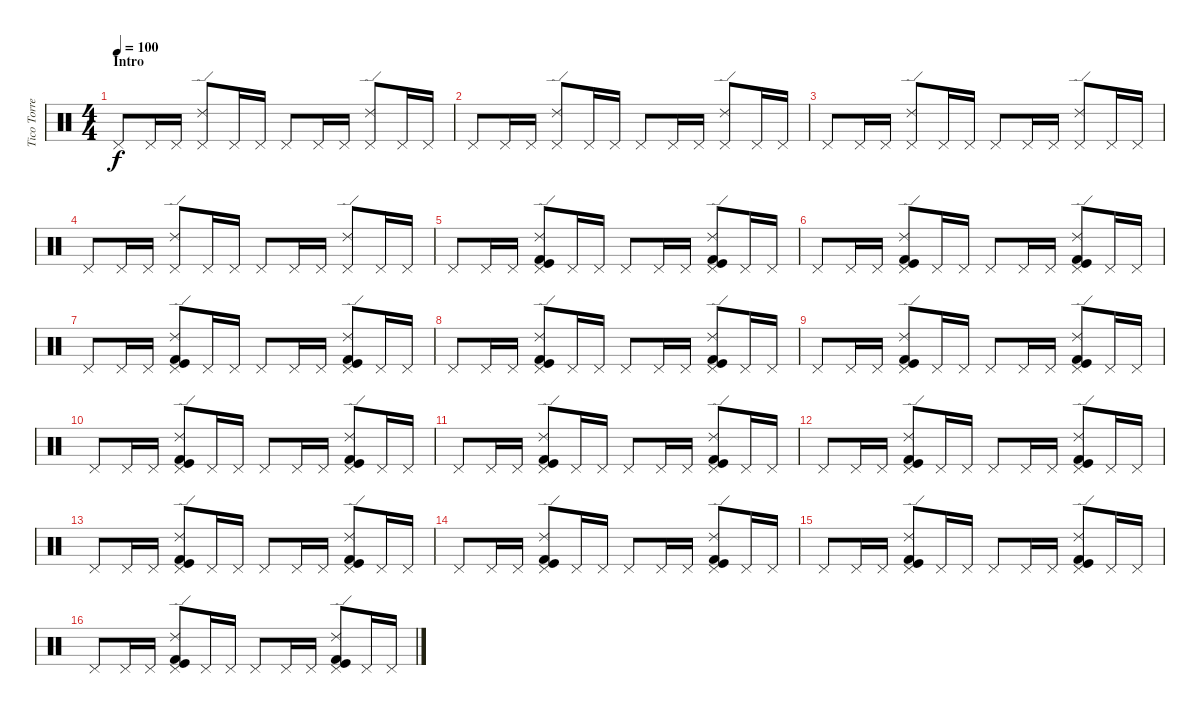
\track ("Tico Torres" "Tico Torre") {instrument percussion}
\staff {score}
\articulation defaults
\ts (4 4)
\section ("" "Intro")
\tempo 100
\clef neutral
\ks c "Pedal Hi-Hat (hit)".8{dy f volume 9} "Pedal Hi-Hat (hit)".16 "Pedal Hi-Hat (hit)".16
("Ride (edge) 2" "Pedal Hi-Hat (hit)").8 "Pedal Hi-Hat (hit)".16 "Pedal Hi-Hat (hit)".16 "Pedal Hi-Hat (hit)".8 "Pedal Hi-Hat (hit)".16 "Pedal Hi-Hat (hit)".16 ("Ride (edge) 2" "Pedal Hi-Hat (hit)").8 "Pedal Hi-Hat (hit)".16 "Pedal Hi-Hat (hit)".16 |
"Pedal Hi-Hat (hit)".8{volume 9} "Pedal Hi-Hat (hit)".16 "Pedal Hi-Hat (hit)".16 ("Ride (edge) 2" "Pedal Hi-Hat (hit)").8 "Pedal Hi-Hat (hit)".16 "Pedal Hi-Hat (hit)".16 "Pedal Hi-Hat (hit)".8 "Pedal Hi-Hat (hit)".16 "Pedal Hi-Hat (hit)".16 ("Ride (edge) 2" "Pedal Hi-Hat (hit)").8 "Pedal Hi-Hat (hit)".16 "Pedal Hi-Hat (hit)".16 |
"Pedal Hi-Hat (hit)".8{volume 9} "Pedal Hi-Hat (hit)".16 "Pedal Hi-Hat (hit)".16 ("Ride (edge) 2" "Pedal Hi-Hat (hit)").8 "Pedal Hi-Hat (hit)".16 "Pedal Hi-Hat (hit)".16 "Pedal Hi-Hat (hit)".8 "Pedal Hi-Hat (hit)".16 "Pedal Hi-Hat (hit)".16 ("Ride (edge) 2" "Pedal Hi-Hat (hit)").8 "Pedal Hi-Hat (hit)".16 "Pedal Hi-Hat (hit)".16 |
"Pedal Hi-Hat (hit)".8{volume 9} "Pedal Hi-Hat (hit)".16 "Pedal Hi-Hat (hit)".16 ("Ride (edge) 2" "Pedal Hi-Hat (hit)").8 "Pedal Hi-Hat (hit)".16 "Pedal Hi-Hat (hit)".16 "Pedal Hi-Hat (hit)".8 "Pedal Hi-Hat (hit)".16 "Pedal Hi-Hat (hit)".16 ("Ride (edge) 2" "Pedal Hi-Hat (hit)").8 "Pedal Hi-Hat (hit)".16 "Pedal Hi-Hat (hit)".16 |
"Pedal Hi-Hat (hit)".8{volume 9} "Pedal Hi-Hat (hit)".16 "Pedal Hi-Hat (hit)".16 ("Ride (edge) 2" "Kick (hit)" "Pedal Hi-Hat (hit)" "Kick (hit) 2").8 "Pedal Hi-Hat (hit)".16 "Pedal Hi-Hat (hit)".16 "Pedal Hi-Hat (hit)".8 "Pedal Hi-Hat (hit)".16 "Pedal Hi-Hat (hit)".16 ("Ride (edge) 2" "Kick (hit)" "Pedal Hi-Hat (hit)" "Kick (hit) 2").8 "Pedal Hi-Hat (hit)".16 "Pedal Hi-Hat (hit)".16 |
"Pedal Hi-Hat (hit)".8{volume 9} "Pedal Hi-Hat (hit)".16 "Pedal Hi-Hat (hit)".16 ("Ride (edge) 2" "Kick (hit)" "Pedal Hi-Hat (hit)" "Kick (hit) 2").8 "Pedal Hi-Hat (hit)".16 "Pedal Hi-Hat (hit)".16 "Pedal Hi-Hat (hit)".8 "Pedal Hi-Hat (hit)".16 "Pedal Hi-Hat (hit)".16 ("Ride (edge) 2" "Kick (hit)" "Pedal Hi-Hat (hit)" "Kick (hit) 2").8 "Pedal Hi-Hat (hit)".16 "Pedal Hi-Hat (hit)".16 |
"Pedal Hi-Hat (hit)".8{volume 9} "Pedal Hi-Hat (hit)".16 "Pedal Hi-Hat (hit)".16 ("Ride (edge) 2" "Kick (hit)" "Pedal Hi-Hat (hit)" "Kick (hit) 2").8 "Pedal Hi-Hat (hit)".16 "Pedal Hi-Hat (hit)".16 "Pedal Hi-Hat (hit)".8 "Pedal Hi-Hat (hit)".16 "Pedal Hi-Hat (hit)".16 ("Ride (edge) 2" "Kick (hit)" "Pedal Hi-Hat (hit)" "Kick (hit) 2").8 "Pedal Hi-Hat (hit)".16 "Pedal Hi-Hat (hit)".16 |
"Pedal Hi-Hat (hit)".8{volume 9} "Pedal Hi-Hat (hit)".16 "Pedal Hi-Hat (hit)".16 ("Ride (edge) 2" "Kick (hit)" "Pedal Hi-Hat (hit)" "Kick (hit) 2").8 "Pedal Hi-Hat (hit)".16 "Pedal Hi-Hat (hit)".16 "Pedal Hi-Hat (hit)".8 "Pedal Hi-Hat (hit)".16 "Pedal Hi-Hat (hit)".16 ("Ride (edge) 2" "Kick (hit)" "Pedal Hi-Hat (hit)" "Kick (hit) 2").8 "Pedal Hi-Hat (hit)".16 "Pedal Hi-Hat (hit)".16 |
"Pedal Hi-Hat (hit)".8{volume 13} "Pedal Hi-Hat (hit)".16 "Pedal Hi-Hat (hit)".16 ("Ride (edge) 2" "Kick (hit)" "Pedal Hi-Hat (hit)" "Kick (hit) 2").8 "Pedal Hi-Hat (hit)".16 "Pedal Hi-Hat (hit)".16 "Pedal Hi-Hat (hit)".8 "Pedal Hi-Hat (hit)".16 "Pedal Hi-Hat (hit)".16 ("Ride (edge) 2" "Kick (hit)" "Pedal Hi-Hat (hit)" "Kick (hit) 2").8 "Pedal Hi-Hat (hit)".16 "Pedal Hi-Hat (hit)".16 |
"Pedal Hi-Hat (hit)".8 "Pedal Hi-Hat (hit)".16 "Pedal Hi-Hat (hit)".16 ("Ride (edge) 2" "Kick (hit)" "Pedal Hi-Hat (hit)" "Kick (hit) 2").8 "Pedal Hi-Hat (hit)".16 "Pedal Hi-Hat (hit)".16 "Pedal Hi-Hat (hit)".8 "Pedal Hi-Hat (hit)".16 "Pedal Hi-Hat (hit)".16 ("Ride (edge) 2" "Kick (hit)" "Pedal Hi-Hat (hit)" "Kick (hit) 2").8 "Pedal Hi-Hat (hit)".16 "Pedal Hi-Hat (hit)".16 |
"Pedal Hi-Hat (hit)".8 "Pedal Hi-Hat (hit)".16 "Pedal Hi-Hat (hit)".16 ("Ride (edge) 2" "Kick (hit)" "Pedal Hi-Hat (hit)" "Kick (hit) 2").8 "Pedal Hi-Hat (hit)".16 "Pedal Hi-Hat (hit)".16 "Pedal Hi-Hat (hit)".8 "Pedal Hi-Hat (hit)".16 "Pedal Hi-Hat (hit)".16 ("Ride (edge) 2" "Kick (hit)" "Pedal Hi-Hat (hit)" "Kick (hit) 2").8 "Pedal Hi-Hat (hit)".16 "Pedal Hi-Hat (hit)".16 |
"Pedal Hi-Hat (hit)".8 "Pedal Hi-Hat (hit)".16 "Pedal Hi-Hat (hit)".16 ("Ride (edge) 2" "Kick (hit)" "Pedal Hi-Hat (hit)" "Kick (hit) 2").8 "Pedal Hi-Hat (hit)".16 "Pedal Hi-Hat (hit)".16 "Pedal Hi-Hat (hit)".8 "Pedal Hi-Hat (hit)".16 "Pedal Hi-Hat (hit)".16 ("Ride (edge) 2" "Kick (hit)" "Pedal Hi-Hat (hit)" "Kick (hit) 2").8 "Pedal Hi-Hat (hit)".16 "Pedal Hi-Hat (hit)".16 |
"Pedal Hi-Hat (hit)".8 "Pedal Hi-Hat (hit)".16 "Pedal Hi-Hat (hit)".16 ("Ride (edge) 2" "Kick (hit)" "Pedal Hi-Hat (hit)" "Kick (hit) 2").8 "Pedal Hi-Hat (hit)".16 "Pedal Hi-Hat (hit)".16 "Pedal Hi-Hat (hit)".8 "Pedal Hi-Hat (hit)".16 "Pedal Hi-Hat (hit)".16 ("Ride (edge) 2" "Kick (hit)" "Pedal Hi-Hat (hit)" "Kick (hit) 2").8 "Pedal Hi-Hat (hit)".16 "Pedal Hi-Hat (hit)".16 |
"Pedal Hi-Hat (hit)".8 "Pedal Hi-Hat (hit)".16 "Pedal Hi-Hat (hit)".16 ("Ride (edge) 2" "Kick (hit)" "Pedal Hi-Hat (hit)" "Kick (hit) 2").8 "Pedal Hi-Hat (hit)".16 "Pedal Hi-Hat (hit)".16 "Pedal Hi-Hat (hit)".8 "Pedal Hi-Hat (hit)".16 "Pedal Hi-Hat (hit)".16 ("Ride (edge) 2" "Kick (hit)" "Pedal Hi-Hat (hit)" "Kick (hit) 2").8 "Pedal Hi-Hat (hit)".16 "Pedal Hi-Hat (hit)".16 |
"Pedal Hi-Hat (hit)".8 "Pedal Hi-Hat (hit)".16 "Pedal Hi-Hat (hit)".16 ("Ride (edge) 2" "Kick (hit)" "Pedal Hi-Hat (hit)" "Kick (hit) 2").8 "Pedal Hi-Hat (hit)".16 "Pedal Hi-Hat (hit)".16 "Pedal Hi-Hat (hit)".8 "Pedal Hi-Hat (hit)".16 "Pedal Hi-Hat (hit)".16 ("Ride (edge) 2" "Kick (hit)" "Pedal Hi-Hat (hit)" "Kick (hit) 2").8 "Pedal Hi-Hat (hit)".16 "Pedal Hi-Hat (hit)".16 |
"Pedal Hi-Hat (hit)".8 "Pedal Hi-Hat (hit)".16 "Pedal Hi-Hat (hit)".16 ("Ride (edge) 2" "Kick (hit)" "Pedal Hi-Hat (hit)" "Kick (hit) 2").8 "Pedal Hi-Hat (hit)".16 "Pedal Hi-Hat (hit)".16 "Pedal Hi-Hat (hit)".8 "Pedal Hi-Hat (hit)".16 "Pedal Hi-Hat (hit)".16 ("Ride (edge) 2" "Kick (hit)" "Pedal Hi-Hat (hit)" "Kick (hit) 2").8 "Pedal Hi-Hat (hit)".16 "Pedal Hi-Hat (hit)".16
